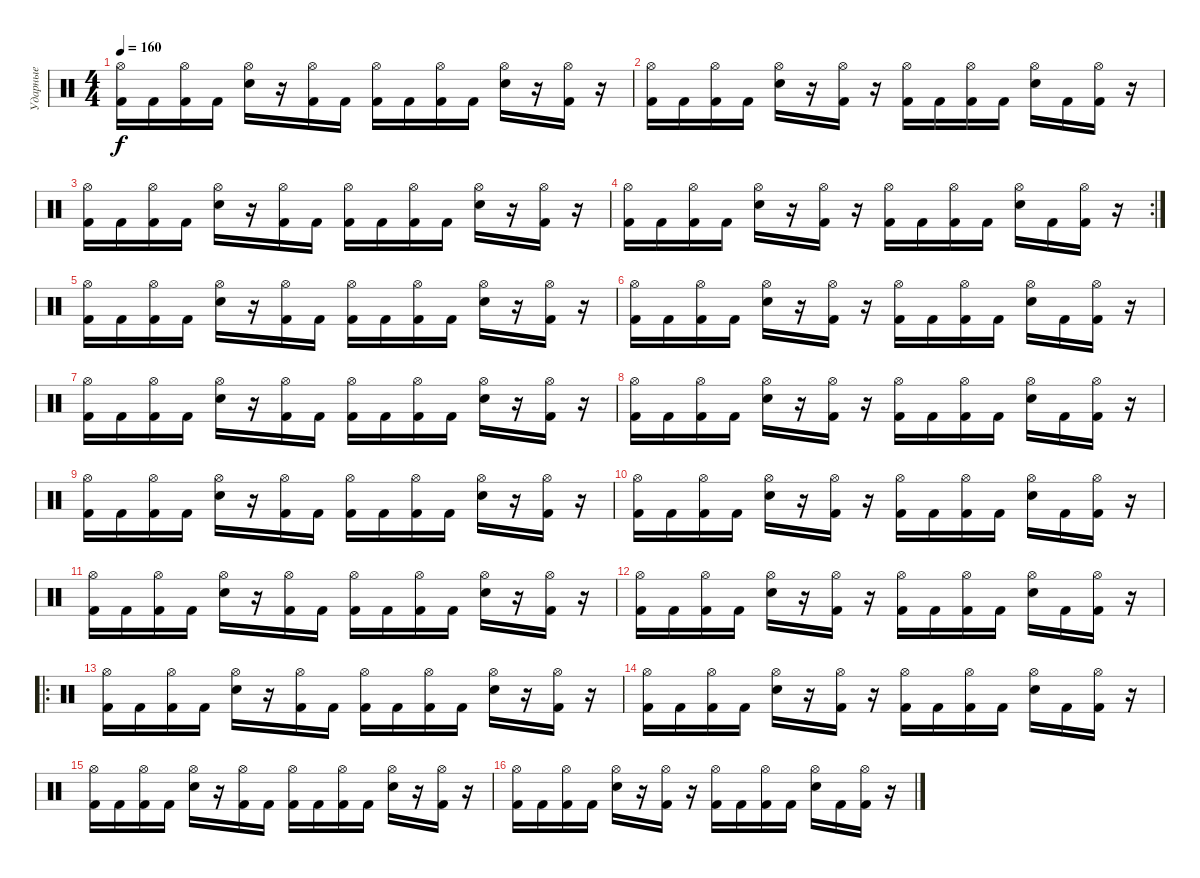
\track ("Ударные" "Ударные") {instrument percussion}
\staff {score}
\articulation defaults
\ts (4 4)
\tempo 160
\clef neutral
\ks c
("Hi-Hat (open)" "Kick (hit) 2").16{dy f} "Kick (hit) 2".16 ("Hi-Hat (open)" "Kick (hit) 2").16 "Kick (hit) 2".16 ("Hi-Hat (open)" "Electric Snare (hit)").16 r.16 ("Hi-Hat (open)" "Kick (hit) 2").16 "Kick (hit) 2".16 ("Hi-Hat (open)" "Kick (hit) 2").16 "Kick (hit) 2".16 ("Hi-Hat (open)" "Kick (hit) 2").16 "Kick (hit) 2".16 ("Hi-Hat (open)" "Electric Snare (hit)").16 r.16 ("Hi-Hat (open)" "Kick (hit) 2").16 r.16 |
("Hi-Hat (open)" "Kick (hit) 2").16 "Kick (hit) 2".16 ("Hi-Hat (open)" "Kick (hit) 2").16 "Kick (hit) 2".16 ("Hi-Hat (open)" "Electric Snare (hit)").16 r.16 ("Hi-Hat (open)" "Kick (hit) 2").16 r.16 ("Hi-Hat (open)" "Kick (hit) 2").16 "Kick (hit) 2".16 ("Hi-Hat (open)" "Kick (hit) 2").16 "Kick (hit) 2".16 ("Hi-Hat (open)" "Electric Snare (hit)").16 "Kick (hit) 2".16 ("Hi-Hat (open)" "Kick (hit) 2").16 r.16 |
("Hi-Hat (open)" "Kick (hit) 2").16 "Kick (hit) 2".16 ("Hi-Hat (open)" "Kick (hit) 2").16 "Kick (hit) 2".16 ("Hi-Hat (open)" "Electric Snare (hit)").16 r.16 ("Hi-Hat (open)" "Kick (hit) 2").16 "Kick (hit) 2".16 ("Hi-Hat (open)" "Kick (hit) 2").16 "Kick (hit) 2".16 ("Hi-Hat (open)" "Kick (hit) 2").16 "Kick (hit) 2".16 ("Hi-Hat (open)" "Electric Snare (hit)").16 r.16 ("Hi-Hat (open)" "Kick (hit) 2").16 r.16 |
\rc 2
("Hi-Hat (open)" "Kick (hit) 2").16 "Kick (hit) 2".16 ("Hi-Hat (open)" "Kick (hit) 2").16 "Kick (hit) 2".16 ("Hi-Hat (open)" "Electric Snare (hit)").16 r.16 ("Hi-Hat (open)" "Kick (hit) 2").16 r.16 ("Hi-Hat (open)" "Kick (hit) 2").16 "Kick (hit) 2".16 ("Hi-Hat (open)" "Kick (hit) 2").16 "Kick (hit) 2".16 ("Hi-Hat (open)" "Electric Snare (hit)").16 "Kick (hit) 2".16 ("Hi-Hat (open)" "Kick (hit) 2").16 r.16 |
("Hi-Hat (open)" "Kick (hit) 2").16 "Kick (hit) 2".16 ("Hi-Hat (open)" "Kick (hit) 2").16 "Kick (hit) 2".16 ("Hi-Hat (open)" "Electric Snare (hit)").16 r.16 ("Hi-Hat (open)" "Kick (hit) 2").16 "Kick (hit) 2".16 ("Hi-Hat (open)" "Kick (hit) 2").16 "Kick (hit) 2".16 ("Hi-Hat (open)" "Kick (hit) 2").16 "Kick (hit) 2".16 ("Hi-Hat (open)" "Electric Snare (hit)").16 r.16 ("Hi-Hat (open)" "Kick (hit) 2").16 r.16 |
("Hi-Hat (open)" "Kick (hit) 2").16 "Kick (hit) 2".16 ("Hi-Hat (open)" "Kick (hit) 2").16 "Kick (hit) 2".16 ("Hi-Hat (open)" "Electric Snare (hit)").16 r.16 ("Hi-Hat (open)" "Kick (hit) 2").16 r.16 ("Hi-Hat (open)" "Kick (hit) 2").16 "Kick (hit) 2".16 ("Hi-Hat (open)" "Kick (hit) 2").16 "Kick (hit) 2".16 ("Hi-Hat (open)" "Electric Snare (hit)").16 "Kick (hit) 2".16 ("Hi-Hat (open)" "Kick (hit) 2").16 r.16 |
("Hi-Hat (open)" "Kick (hit) 2").16 "Kick (hit) 2".16 ("Hi-Hat (open)" "Kick (hit) 2").16 "Kick (hit) 2".16 ("Hi-Hat (open)" "Electric Snare (hit)").16 r.16 ("Hi-Hat (open)" "Kick (hit) 2").16 "Kick (hit) 2".16 ("Hi-Hat (open)" "Kick (hit) 2").16 "Kick (hit) 2".16 ("Hi-Hat (open)" "Kick (hit) 2").16 "Kick (hit) 2".16 ("Hi-Hat (open)" "Electric Snare (hit)").16 r.16 ("Hi-Hat (open)" "Kick (hit) 2").16 r.16 |
("Hi-Hat (open)" "Kick (hit) 2").16 "Kick (hit) 2".16 ("Hi-Hat (open)" "Kick (hit) 2").16 "Kick (hit) 2".16 ("Hi-Hat (open)" "Electric Snare (hit)").16 r.16 ("Hi-Hat (open)" "Kick (hit) 2").16 r.16 ("Hi-Hat (open)" "Kick (hit) 2").16 "Kick (hit) 2".16 ("Hi-Hat (open)" "Kick (hit) 2").16 "Kick (hit) 2".16 ("Hi-Hat (open)" "Electric Snare (hit)").16 "Kick (hit) 2".16 ("Hi-Hat (open)" "Kick (hit) 2").16 r.16 |
("Hi-Hat (open)" "Kick (hit) 2").16 "Kick (hit) 2".16 ("Hi-Hat (open)" "Kick (hit) 2").16 "Kick (hit) 2".16 ("Hi-Hat (open)" "Electric Snare (hit)").16 r.16 ("Hi-Hat (open)" "Kick (hit) 2").16 "Kick (hit) 2".16 ("Hi-Hat (open)" "Kick (hit) 2").16 "Kick (hit) 2".16 ("Hi-Hat (open)" "Kick (hit) 2").16 "Kick (hit) 2".16 ("Hi-Hat (open)" "Electric Snare (hit)").16 r.16 ("Hi-Hat (open)" "Kick (hit) 2").16 r.16 |
("Hi-Hat (open)" "Kick (hit) 2").16 "Kick (hit) 2".16 ("Hi-Hat (open)" "Kick (hit) 2").16 "Kick (hit) 2".16 ("Hi-Hat (open)" "Electric Snare (hit)").16 r.16 ("Hi-Hat (open)" "Kick (hit) 2").16 r.16 ("Hi-Hat (open)" "Kick (hit) 2").16 "Kick (hit) 2".16 ("Hi-Hat (open)" "Kick (hit) 2").16 "Kick (hit) 2".16 ("Hi-Hat (open)" "Electric Snare (hit)").16 "Kick (hit) 2".16 ("Hi-Hat (open)" "Kick (hit) 2").16 r.16 |
("Hi-Hat (open)" "Kick (hit) 2").16 "Kick (hit) 2".16 ("Hi-Hat (open)" "Kick (hit) 2").16 "Kick (hit) 2".16 ("Hi-Hat (open)" "Electric Snare (hit)").16 r.16 ("Hi-Hat (open)" "Kick (hit) 2").16 "Kick (hit) 2".16 ("Hi-Hat (open)" "Kick (hit) 2").16 "Kick (hit) 2".16 ("Hi-Hat (open)" "Kick (hit) 2").16 "Kick (hit) 2".16 ("Hi-Hat (open)" "Electric Snare (hit)").16 r.16 ("Hi-Hat (open)" "Kick (hit) 2").16 r.16 |
("Hi-Hat (open)" "Kick (hit) 2").16 "Kick (hit) 2".16 ("Hi-Hat (open)" "Kick (hit) 2").16 "Kick (hit) 2".16 ("Hi-Hat (open)" "Electric Snare (hit)").16 r.16 ("Hi-Hat (open)" "Kick (hit) 2").16 r.16 ("Hi-Hat (open)" "Kick (hit) 2").16 "Kick (hit) 2".16 ("Hi-Hat (open)" "Kick (hit) 2").16 "Kick (hit) 2".16 ("Hi-Hat (open)" "Electric Snare (hit)").16 "Kick (hit) 2".16 ("Hi-Hat (open)" "Kick (hit) 2").16 r.16 |
\ro
("Hi-Hat (open)" "Kick (hit) 2").16 "Kick (hit) 2".16 ("Hi-Hat (open)" "Kick (hit) 2").16 "Kick (hit) 2".16 ("Hi-Hat (open)" "Electric Snare (hit)").16 r.16 ("Hi-Hat (open)" "Kick (hit) 2").16 "Kick (hit) 2".16 ("Hi-Hat (open)" "Kick (hit) 2").16 "Kick (hit) 2".16 ("Hi-Hat (open)" "Kick (hit) 2").16 "Kick (hit) 2".16 ("Hi-Hat (open)" "Electric Snare (hit)").16 r.16 ("Hi-Hat (open)" "Kick (hit) 2").16 r.16 |
("Hi-Hat (open)" "Kick (hit) 2").16 "Kick (hit) 2".16 ("Hi-Hat (open)" "Kick (hit) 2").16 "Kick (hit) 2".16 ("Hi-Hat (open)" "Electric Snare (hit)").16 r.16 ("Hi-Hat (open)" "Kick (hit) 2").16 r.16 ("Hi-Hat (open)" "Kick (hit) 2").16 "Kick (hit) 2".16 ("Hi-Hat (open)" "Kick (hit) 2").16 "Kick (hit) 2".16 ("Hi-Hat (open)" "Electric Snare (hit)").16 "Kick (hit) 2".16 ("Hi-Hat (open)" "Kick (hit) 2").16 r.16 |
("Hi-Hat (open)" "Kick (hit) 2").16 "Kick (hit) 2".16 ("Hi-Hat (open)" "Kick (hit) 2").16 "Kick (hit) 2".16 ("Hi-Hat (open)" "Electric Snare (hit)").16 r.16 ("Hi-Hat (open)" "Kick (hit) 2").16 "Kick (hit) 2".16 ("Hi-Hat (open)" "Kick (hit) 2").16 "Kick (hit) 2".16 ("Hi-Hat (open)" "Kick (hit) 2").16 "Kick (hit) 2".16 ("Hi-Hat (open)" "Electric Snare (hit)").16 r.16 ("Hi-Hat (open)" "Kick (hit) 2").16 r.16 |
("Hi-Hat (open)" "Kick (hit) 2").16 "Kick (hit) 2".16 ("Hi-Hat (open)" "Kick (hit) 2").16 "Kick (hit) 2".16 ("Hi-Hat (open)" "Electric Snare (hit)").16 r.16 ("Hi-Hat (open)" "Kick (hit) 2").16 r.16 ("Hi-Hat (open)" "Kick (hit) 2").16 "Kick (hit) 2".16 ("Hi-Hat (open)" "Kick (hit) 2").16 "Kick (hit) 2".16 ("Hi-Hat (open)" "Electric Snare (hit)").16 "Kick (hit) 2".16 ("Hi-Hat (open)" "Kick (hit) 2").16 r.16
